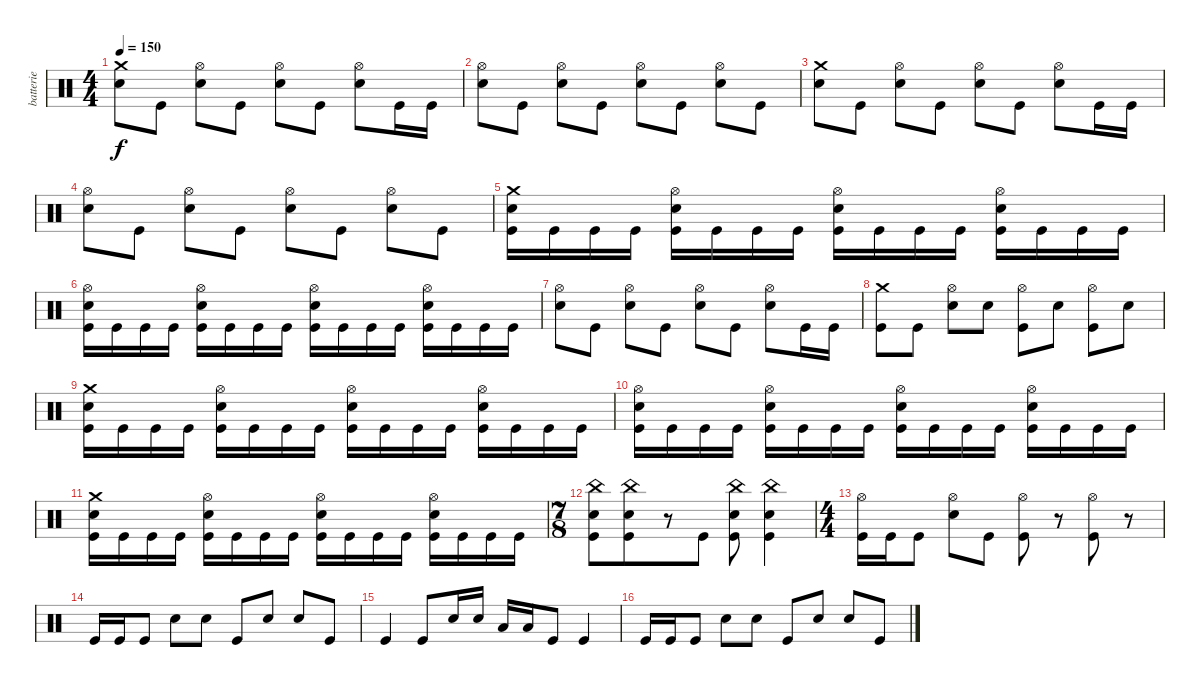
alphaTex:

\track ("batterie" "batterie") {instrument percussion}
\staff {score}
\articulation defaults
\ts (4 4)
\tempo 150
\clef neutral
\ks c
("Crash medium (hit)" "Snare (hit) 2").8{dy f} "Kick (hit)".8 ("Hi-Hat (open)" "Snare (hit) 2").8 "Kick (hit)".8 ("Hi-Hat (open)" "Snare (hit) 2").8 "Kick (hit)".8 ("Hi-Hat (open)" "Snare (hit) 2").8 "Kick (hit)".16 "Kick (hit)".16 |
("Hi-Hat (open)" "Snare (hit) 2").8 "Kick (hit)".8 ("Hi-Hat (open)" "Snare (hit) 2").8 "Kick (hit)".8 ("Hi-Hat (open)" "Snare (hit) 2").8 "Kick (hit)".8 ("Hi-Hat (open)" "Snare (hit) 2").8 "Kick (hit)".8 |
("Crash medium (hit)" "Snare (hit) 2").8 "Kick (hit)".8 ("Hi-Hat (open)" "Snare (hit) 2").8 "Kick (hit)".8 ("Hi-Hat (open)" "Snare (hit) 2").8 "Kick (hit)".8 ("Hi-Hat (open)" "Snare (hit) 2").8 "Kick (hit)".16 "Kick (hit)".16 |
("Hi-Hat (open)" "Snare (hit) 2").8 "Kick (hit)".8 ("Hi-Hat (open)" "Snare (hit) 2").8 "Kick (hit)".8 ("Hi-Hat (open)" "Snare (hit) 2").8 "Kick (hit)".8 ("Hi-Hat (open)" "Snare (hit) 2").8 "Kick (hit)".8 |
("Crash medium (hit)" "Snare (hit) 2" "Kick (hit)").16 "Kick (hit)".16 "Kick (hit)".16 "Kick (hit)".16 ("Hi-Hat (open)" "Snare (hit) 2" "Kick (hit)").16 "Kick (hit)".16 "Kick (hit)".16 "Kick (hit)".16 ("Hi-Hat (open)" "Snare (hit) 2" "Kick (hit)").16 "Kick (hit)".16 "Kick (hit)".16 "Kick (hit)".16 ("Hi-Hat (open)" "Snare (hit) 2" "Kick (hit)").16 "Kick (hit)".16 "Kick (hit)".16 "Kick (hit)".16 |
("Hi-Hat (open)" "Snare (hit) 2" "Kick (hit)").16 "Kick (hit)".16 "Kick (hit)".16 "Kick (hit)".16 ("Hi-Hat (open)" "Snare (hit) 2" "Kick (hit)").16 "Kick (hit)".16 "Kick (hit)".16 "Kick (hit)".16 ("Hi-Hat (open)" "Snare (hit) 2" "Kick (hit)").16 "Kick (hit)".16 "Kick (hit)".16 "Kick (hit)".16 ("Hi-Hat (open)" "Snare (hit) 2" "Kick (hit)").16 "Kick (hit)".16 "Kick (hit)".16 "Kick (hit)".16 |
("Hi-Hat (open)" "Snare (hit) 2").8 "Kick (hit)".8 ("Hi-Hat (open)" "Snare (hit) 2").8 "Kick (hit)".8 ("Hi-Hat (open)" "Snare (hit) 2").8 "Kick (hit)".8 ("Hi-Hat (open)" "Snare (hit) 2").8 "Kick (hit)".16 "Kick (hit)".16 |
("Crash medium (hit)" "Kick (hit)").8 "Kick (hit)".8 ("Hi-Hat (open)" "Snare (hit) 2").8 "Snare (hit) 2".8 ("Hi-Hat (open)" "Kick (hit)").8 "Snare (hit) 2".8 ("Hi-Hat (open)" "Kick (hit)").8 "Snare (hit) 2".8 |
("Crash medium (hit)" "Snare (hit) 2" "Kick (hit)").16 "Kick (hit)".16 "Kick (hit)".16 "Kick (hit)".16 ("Hi-Hat (open)" "Snare (hit) 2" "Kick (hit)").16 "Kick (hit)".16 "Kick (hit)".16 "Kick (hit)".16 ("Hi-Hat (open)" "Snare (hit) 2" "Kick (hit)").16 "Kick (hit)".16 "Kick (hit)".16 "Kick (hit)".16 ("Hi-Hat (open)" "Snare (hit) 2" "Kick (hit)").16 "Kick (hit)".16 "Kick (hit)".16 "Kick (hit)".16 |
("Hi-Hat (open)" "Snare (hit) 2" "Kick (hit)").16 "Kick (hit)".16 "Kick (hit)".16 "Kick (hit)".16 ("Hi-Hat (open)" "Snare (hit) 2" "Kick (hit)").16 "Kick (hit)".16 "Kick (hit)".16 "Kick (hit)".16 ("Hi-Hat (open)" "Snare (hit) 2" "Kick (hit)").16 "Kick (hit)".16 "Kick (hit)".16 "Kick (hit)".16 ("Hi-Hat (open)" "Snare (hit) 2" "Kick (hit)").16 "Kick (hit)".16 "Kick (hit)".16 "Kick (hit)".16 |
("Crash medium (hit)" "Snare (hit) 2" "Kick (hit)").16 "Kick (hit)".16 "Kick (hit)".16 "Kick (hit)".16 ("Hi-Hat (open)" "Snare (hit) 2" "Kick (hit)").16 "Kick (hit)".16 "Kick (hit)".16 "Kick (hit)".16 ("Hi-Hat (open)" "Snare (hit) 2" "Kick (hit)").16 "Kick (hit)".16 "Kick (hit)".16 "Kick (hit)".16 ("Hi-Hat (open)" "Snare (hit) 2" "Kick (hit)").16 "Kick (hit)".16 "Kick (hit)".16 "Kick (hit)".16 |
\ts (7 8)
("Snare (hit) 2" "China (hit)" "Kick (hit)").8 ("Snare (hit) 2" "China (hit)" "Kick (hit)").8 r.8 "Kick (hit)".8 ("Snare (hit) 2" "China (hit)" "Kick (hit)").8 ("Snare (hit) 2" "China (hit)" "Kick (hit)").4 |
\ts (4 4)
("Hi-Hat (open)" "Kick (hit)").16 "Kick (hit)".16 "Kick (hit)".8 ("Hi-Hat (open)" "Snare (hit) 2").8 "Kick (hit)".8 ("Hi-Hat (open)" "Kick (hit)").8 r.8 ("Hi-Hat (open)" "Kick (hit)").8 r.8 |
"Kick (hit)".16 "Kick (hit)".16 "Kick (hit)".8 "Snare (hit) 2".8 "Snare (hit) 2".8 "Kick (hit)".8 "Snare (hit) 2".8 "Snare (hit) 2".8 "Kick (hit)".8 |
"Kick (hit)".4 "Kick (hit)".8 "Snare (hit) 2".16 "Snare (hit) 2".16 "Low Floor Tom (hit)".16 "Low Floor Tom (hit)".16 "Kick (hit)".8 "Kick (hit)".4 |
"Kick (hit)".16 "Kick (hit)".16 "Kick (hit)".8 "Snare (hit) 2".8 "Snare (hit) 2".8 "Kick (hit)".8 "Snare (hit) 2".8 "Snare (hit) 2".8 "Kick (hit)".8
